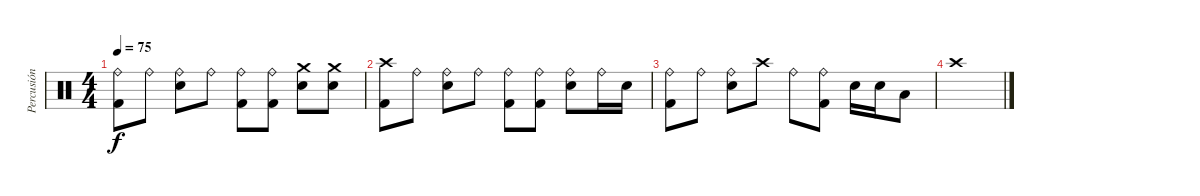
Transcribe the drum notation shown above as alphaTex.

\track ("Percusión" "Percusión") {instrument percussion}
\staff {score}
\articulation defaults
\ts (4 4)
\tempo 75
\clef neutral
\ks c
("Ride (bell)" "Kick (hit) 2").8{dy f} "Ride (bell)".8 ("Ride (bell)" "Electric Snare (hit)").8 "Ride (bell)".8 ("Ride (bell)" "Kick (hit) 2").8 ("Ride (bell)" "Kick (hit) 2").8 ("Crash medium (hit)" "Electric Snare (hit)").8 ("Crash medium (hit)" "Electric Snare (hit)").8 |
("Crash high (hit)" "Kick (hit) 2").8 "Ride (bell)".8 ("Ride (bell)" "Electric Snare (hit)").8 "Ride (bell)".8 ("Ride (bell)" "Kick (hit) 2").8 ("Ride (bell)" "Kick (hit) 2").8 ("Ride (bell)" "Electric Snare (hit)").8 "Ride (bell)".16 "Electric Snare (hit)".16 |
("Ride (bell)" "Kick (hit) 2").8 "Ride (bell)".8 ("Ride (bell)" "Electric Snare (hit)").8 "Crash high (hit)".8 "Ride (bell)".8 ("Ride (bell)" "Kick (hit) 2").8 "Electric Snare (hit)".16 "Electric Snare (hit)".16 "Low Tom (hit)".8 |
"Crash high (hit)".1
